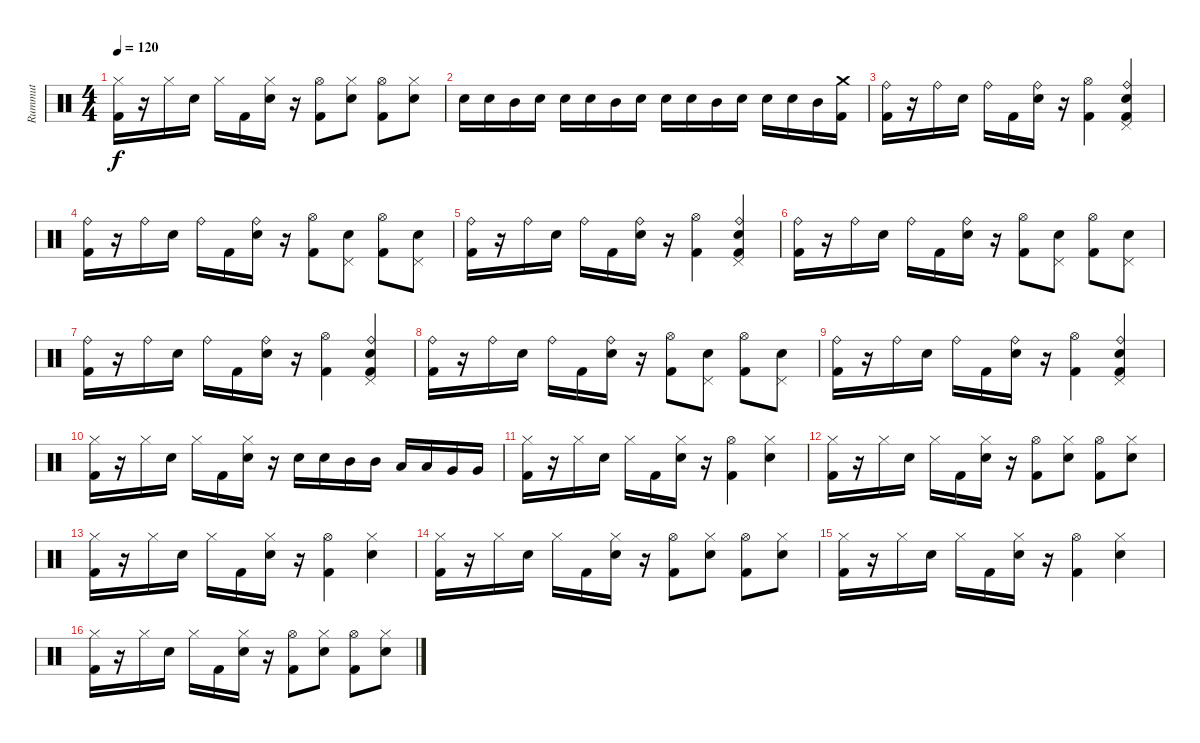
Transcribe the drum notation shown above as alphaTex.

\track ("Rummut" "Rummut") {instrument percussion}
\staff {score}
\articulation defaults
\ts (4 4)
\tempo 120
\clef neutral
\ks c
("Hi-Hat (closed)" "Kick (hit) 2").16{dy f} r.16 "Hi-Hat (closed)".16 "Snare (hit) 2".16 "Hi-Hat (closed)".16 "Kick (hit) 2".16 ("Hi-Hat (closed)" "Snare (hit) 2").16 r.16 ("Hi-Hat (open)" "Kick (hit) 2").8 ("Hi-Hat (closed)" "Snare (hit) 2").8 ("Hi-Hat (open)" "Kick (hit) 2").8 ("Hi-Hat (closed)" "Snare (hit) 2").8 |
"Snare (hit) 2".16 "Snare (hit) 2".16 "Mid Tom (hit)".16 "Snare (hit) 2".16 "Snare (hit) 2".16 "Snare (hit) 2".16 "Mid Tom (hit)".16 "Snare (hit) 2".16 "Snare (hit) 2".16 "Snare (hit) 2".16 "Mid Tom (hit)".16 "Snare (hit) 2".16 "Snare (hit) 2".16 "Snare (hit) 2".16 "Mid Tom (hit)".16 ("Crash medium (hit)" "Kick (hit) 2").16 |
("Ride (bell)" "Kick (hit) 2").16 r.16 "Ride (bell)".16 "Snare (hit) 2".16 "Ride (bell)".16 "Kick (hit) 2".16 ("Ride (bell)" "Snare (hit) 2").16 r.16 ("Hi-Hat (open)" "Kick (hit) 2").4 ("Pedal Hi-Hat (hit)" "Snare (hit) 2" "Ride (bell)" "Kick (hit) 2").4 |
("Ride (bell)" "Kick (hit) 2").16 r.16 "Ride (bell)".16 "Snare (hit) 2".16 "Ride (bell)".16 "Kick (hit) 2".16 ("Ride (bell)" "Snare (hit) 2").16 r.16 ("Hi-Hat (open)" "Kick (hit) 2").8 ("Pedal Hi-Hat (hit)" "Snare (hit) 2").8 ("Hi-Hat (open)" "Kick (hit) 2").8 ("Pedal Hi-Hat (hit)" "Snare (hit) 2").8 |
("Ride (bell)" "Kick (hit) 2").16 r.16 "Ride (bell)".16 "Snare (hit) 2".16 "Ride (bell)".16 "Kick (hit) 2".16 ("Ride (bell)" "Snare (hit) 2").16 r.16 ("Hi-Hat (open)" "Kick (hit) 2").4 ("Pedal Hi-Hat (hit)" "Snare (hit) 2" "Ride (bell)" "Kick (hit) 2").4 |
("Ride (bell)" "Kick (hit) 2").16 r.16 "Ride (bell)".16 "Snare (hit) 2".16 "Ride (bell)".16 "Kick (hit) 2".16 ("Ride (bell)" "Snare (hit) 2").16 r.16 ("Hi-Hat (open)" "Kick (hit) 2").8 ("Pedal Hi-Hat (hit)" "Snare (hit) 2").8 ("Hi-Hat (open)" "Kick (hit) 2").8 ("Pedal Hi-Hat (hit)" "Snare (hit) 2").8 |
("Ride (bell)" "Kick (hit) 2").16 r.16 "Ride (bell)".16 "Snare (hit) 2".16 "Ride (bell)".16 "Kick (hit) 2".16 ("Ride (bell)" "Snare (hit) 2").16 r.16 ("Hi-Hat (open)" "Kick (hit) 2").4 ("Pedal Hi-Hat (hit)" "Snare (hit) 2" "Ride (bell)" "Kick (hit) 2").4 |
("Ride (bell)" "Kick (hit) 2").16 r.16 "Ride (bell)".16 "Snare (hit) 2".16 "Ride (bell)".16 "Kick (hit) 2".16 ("Ride (bell)" "Snare (hit) 2").16 r.16 ("Hi-Hat (open)" "Kick (hit) 2").8 ("Pedal Hi-Hat (hit)" "Snare (hit) 2").8 ("Hi-Hat (open)" "Kick (hit) 2").8 ("Pedal Hi-Hat (hit)" "Snare (hit) 2").8 |
("Ride (bell)" "Kick (hit) 2").16 r.16 "Ride (bell)".16 "Snare (hit) 2".16 "Ride (bell)".16 "Kick (hit) 2".16 ("Ride (bell)" "Snare (hit) 2").16 r.16 ("Hi-Hat (open)" "Kick (hit) 2").4 ("Pedal Hi-Hat (hit)" "Snare (hit) 2" "Ride (bell)" "Kick (hit) 2").4 |
("Hi-Hat (closed)" "Kick (hit) 2").16 r.16 "Hi-Hat (closed)".16 "Snare (hit) 2".16 "Hi-Hat (closed)".16 "Kick (hit) 2".16 ("Hi-Hat (closed)" "Snare (hit) 2").16 r.16 "Snare (hit) 2".16 "Snare (hit) 2".16 "Mid Tom (hit)".16 "Mid Tom (hit)".16 "Low Tom (hit)".16 "Low Tom (hit)".16 "Very Low Tom (hit)".16 "Very Low Tom (hit)".16 |
("Hi-Hat (closed)" "Kick (hit) 2").16 r.16 "Hi-Hat (closed)".16 "Snare (hit) 2".16 "Hi-Hat (closed)".16 "Kick (hit) 2".16 ("Hi-Hat (closed)" "Snare (hit) 2").16 r.16 ("Hi-Hat (open)" "Kick (hit) 2").4 ("Hi-Hat (closed)" "Snare (hit) 2").4 |
("Hi-Hat (closed)" "Kick (hit) 2").16 r.16 "Hi-Hat (closed)".16 "Snare (hit) 2".16 "Hi-Hat (closed)".16 "Kick (hit) 2".16 ("Hi-Hat (closed)" "Snare (hit) 2").16 r.16 ("Hi-Hat (open)" "Kick (hit) 2").8 ("Hi-Hat (closed)" "Snare (hit) 2").8 ("Hi-Hat (open)" "Kick (hit) 2").8 ("Hi-Hat (closed)" "Snare (hit) 2").8 |
("Hi-Hat (closed)" "Kick (hit) 2").16 r.16 "Hi-Hat (closed)".16 "Snare (hit) 2".16 "Hi-Hat (closed)".16 "Kick (hit) 2".16 ("Hi-Hat (closed)" "Snare (hit) 2").16 r.16 ("Hi-Hat (open)" "Kick (hit) 2").4 ("Hi-Hat (closed)" "Snare (hit) 2").4 |
("Hi-Hat (closed)" "Kick (hit) 2").16 r.16 "Hi-Hat (closed)".16 "Snare (hit) 2".16 "Hi-Hat (closed)".16 "Kick (hit) 2".16 ("Hi-Hat (closed)" "Snare (hit) 2").16 r.16 ("Hi-Hat (open)" "Kick (hit) 2").8 ("Hi-Hat (closed)" "Snare (hit) 2").8 ("Hi-Hat (open)" "Kick (hit) 2").8 ("Hi-Hat (closed)" "Snare (hit) 2").8 |
("Hi-Hat (closed)" "Kick (hit) 2").16 r.16 "Hi-Hat (closed)".16 "Snare (hit) 2".16 "Hi-Hat (closed)".16 "Kick (hit) 2".16 ("Hi-Hat (closed)" "Snare (hit) 2").16 r.16 ("Hi-Hat (open)" "Kick (hit) 2").4 ("Hi-Hat (closed)" "Snare (hit) 2").4 |
("Hi-Hat (closed)" "Kick (hit) 2").16 r.16 "Hi-Hat (closed)".16 "Snare (hit) 2".16 "Hi-Hat (closed)".16 "Kick (hit) 2".16 ("Hi-Hat (closed)" "Snare (hit) 2").16 r.16 ("Hi-Hat (open)" "Kick (hit) 2").8 ("Hi-Hat (closed)" "Snare (hit) 2").8 ("Hi-Hat (open)" "Kick (hit) 2").8 ("Hi-Hat (closed)" "Snare (hit) 2").8
